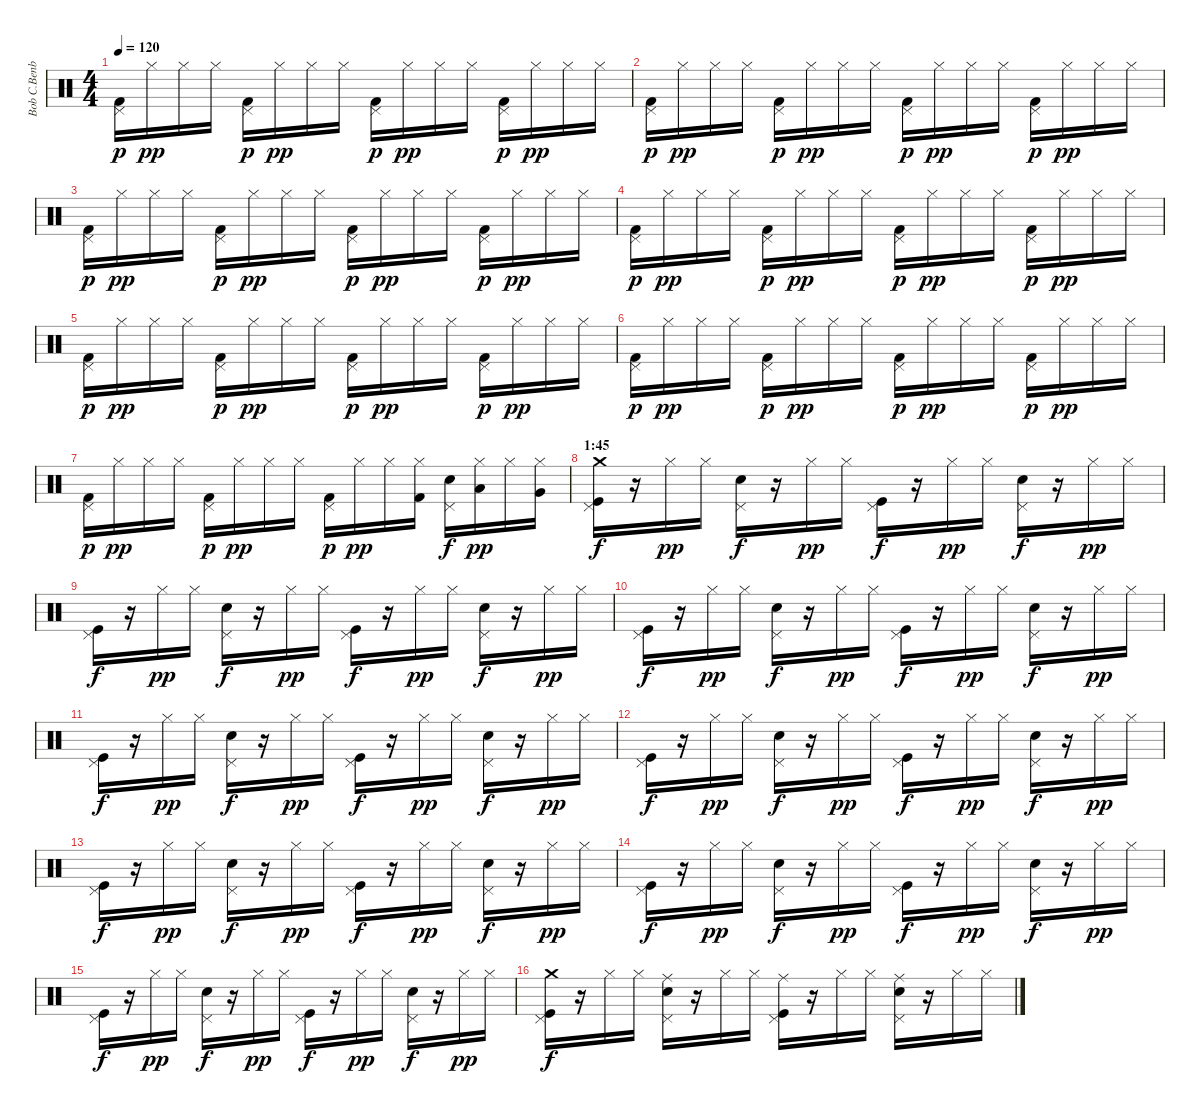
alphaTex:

\track ("Bob C.Benberg (drums)" "Bob C.Benb") {instrument percussion}
\staff {score}
\articulation defaults
\ts (4 4)
\tempo 120
\clef neutral
\ks c
("Pedal Hi-Hat (hit)" "Kick (hit) 2").16{dy p} "Hi-Hat (closed)".16{dy pp} "Hi-Hat (closed)".16 "Hi-Hat (closed)".16 ("Pedal Hi-Hat (hit)" "Kick (hit) 2").16{dy p} "Hi-Hat (closed)".16{dy pp} "Hi-Hat (closed)".16 "Hi-Hat (closed)".16 ("Pedal Hi-Hat (hit)" "Kick (hit) 2").16{dy p} "Hi-Hat (closed)".16{dy pp} "Hi-Hat (closed)".16 "Hi-Hat (closed)".16 ("Pedal Hi-Hat (hit)" "Kick (hit) 2").16{dy p} "Hi-Hat (closed)".16{dy pp} "Hi-Hat (closed)".16 "Hi-Hat (closed)".16 |
("Pedal Hi-Hat (hit)" "Kick (hit) 2").16{dy p} "Hi-Hat (closed)".16{dy pp} "Hi-Hat (closed)".16 "Hi-Hat (closed)".16 ("Pedal Hi-Hat (hit)" "Kick (hit) 2").16{dy p} "Hi-Hat (closed)".16{dy pp} "Hi-Hat (closed)".16 "Hi-Hat (closed)".16 ("Pedal Hi-Hat (hit)" "Kick (hit) 2").16{dy p} "Hi-Hat (closed)".16{dy pp} "Hi-Hat (closed)".16 "Hi-Hat (closed)".16 ("Pedal Hi-Hat (hit)" "Kick (hit) 2").16{dy p} "Hi-Hat (closed)".16{dy pp} "Hi-Hat (closed)".16 "Hi-Hat (closed)".16 |
("Pedal Hi-Hat (hit)" "Kick (hit) 2").16{dy p} "Hi-Hat (closed)".16{dy pp} "Hi-Hat (closed)".16 "Hi-Hat (closed)".16 ("Pedal Hi-Hat (hit)" "Kick (hit) 2").16{dy p} "Hi-Hat (closed)".16{dy pp} "Hi-Hat (closed)".16 "Hi-Hat (closed)".16 ("Pedal Hi-Hat (hit)" "Kick (hit) 2").16{dy p} "Hi-Hat (closed)".16{dy pp} "Hi-Hat (closed)".16 "Hi-Hat (closed)".16 ("Pedal Hi-Hat (hit)" "Kick (hit) 2").16{dy p} "Hi-Hat (closed)".16{dy pp} "Hi-Hat (closed)".16 "Hi-Hat (closed)".16 |
("Pedal Hi-Hat (hit)" "Kick (hit) 2").16{dy p} "Hi-Hat (closed)".16{dy pp} "Hi-Hat (closed)".16 "Hi-Hat (closed)".16 ("Pedal Hi-Hat (hit)" "Kick (hit) 2").16{dy p} "Hi-Hat (closed)".16{dy pp} "Hi-Hat (closed)".16 "Hi-Hat (closed)".16 ("Pedal Hi-Hat (hit)" "Kick (hit) 2").16{dy p} "Hi-Hat (closed)".16{dy pp} "Hi-Hat (closed)".16 "Hi-Hat (closed)".16 ("Pedal Hi-Hat (hit)" "Kick (hit) 2").16{dy p} "Hi-Hat (closed)".16{dy pp} "Hi-Hat (closed)".16 "Hi-Hat (closed)".16 |
("Pedal Hi-Hat (hit)" "Kick (hit) 2").16{dy p} "Hi-Hat (closed)".16{dy pp} "Hi-Hat (closed)".16 "Hi-Hat (closed)".16 ("Pedal Hi-Hat (hit)" "Kick (hit) 2").16{dy p} "Hi-Hat (closed)".16{dy pp} "Hi-Hat (closed)".16 "Hi-Hat (closed)".16 ("Pedal Hi-Hat (hit)" "Kick (hit) 2").16{dy p} "Hi-Hat (closed)".16{dy pp} "Hi-Hat (closed)".16 "Hi-Hat (closed)".16 ("Pedal Hi-Hat (hit)" "Kick (hit) 2").16{dy p} "Hi-Hat (closed)".16{dy pp} "Hi-Hat (closed)".16 "Hi-Hat (closed)".16 |
("Pedal Hi-Hat (hit)" "Kick (hit) 2").16{dy p} "Hi-Hat (closed)".16{dy pp} "Hi-Hat (closed)".16 "Hi-Hat (closed)".16 ("Pedal Hi-Hat (hit)" "Kick (hit) 2").16{dy p} "Hi-Hat (closed)".16{dy pp} "Hi-Hat (closed)".16 "Hi-Hat (closed)".16 ("Pedal Hi-Hat (hit)" "Kick (hit) 2").16{dy p} "Hi-Hat (closed)".16{dy pp} "Hi-Hat (closed)".16 "Hi-Hat (closed)".16 ("Pedal Hi-Hat (hit)" "Kick (hit) 2").16{dy p} "Hi-Hat (closed)".16{dy pp} "Hi-Hat (closed)".16 "Hi-Hat (closed)".16 |
("Pedal Hi-Hat (hit)" "Kick (hit) 2").16{dy p} "Hi-Hat (closed)".16{dy pp} "Hi-Hat (closed)".16 "Hi-Hat (closed)".16 ("Pedal Hi-Hat (hit)" "Kick (hit) 2").16{dy p} "Hi-Hat (closed)".16{dy pp} "Hi-Hat (closed)".16 "Hi-Hat (closed)".16 ("Pedal Hi-Hat (hit)" "Kick (hit) 2").16{dy p} "Hi-Hat (closed)".16{dy pp} "Hi-Hat (closed)".16 ("Hi-Hat (closed)" "Kick (hit) 2").16 ("Pedal Hi-Hat (hit)" "Snare (hit) 2").16{dy f} ("Hi-Hat (closed)" "Low Tom (hit)").16{dy pp} "Hi-Hat (closed)".16 ("Hi-Hat (closed)" "Very Low Tom (hit)").16 |
\section ("" "1:45")
("Pedal Hi-Hat (hit)" "Kick (hit)" "Crash medium (hit)").16{dy f} r.16 "Hi-Hat (closed)".16{dy pp} "Hi-Hat (closed)".16 ("Pedal Hi-Hat (hit)" "Snare (hit) 2").16{dy f} r.16 "Hi-Hat (closed)".16{dy pp} "Hi-Hat (closed)".16 ("Pedal Hi-Hat (hit)" "Kick (hit)").16{dy f} r.16 "Hi-Hat (closed)".16{dy pp} "Hi-Hat (closed)".16 ("Pedal Hi-Hat (hit)" "Snare (hit) 2").16{dy f} r.16 "Hi-Hat (closed)".16{dy pp} "Hi-Hat (closed)".16 |
("Pedal Hi-Hat (hit)" "Kick (hit)").16{dy f} r.16 "Hi-Hat (closed)".16{dy pp} "Hi-Hat (closed)".16 ("Pedal Hi-Hat (hit)" "Snare (hit) 2").16{dy f} r.16 "Hi-Hat (closed)".16{dy pp} "Hi-Hat (closed)".16 ("Pedal Hi-Hat (hit)" "Kick (hit)").16{dy f} r.16 "Hi-Hat (closed)".16{dy pp} "Hi-Hat (closed)".16 ("Pedal Hi-Hat (hit)" "Snare (hit) 2").16{dy f} r.16 "Hi-Hat (closed)".16{dy pp} "Hi-Hat (closed)".16 |
("Pedal Hi-Hat (hit)" "Kick (hit)").16{dy f} r.16 "Hi-Hat (closed)".16{dy pp} "Hi-Hat (closed)".16 ("Pedal Hi-Hat (hit)" "Snare (hit) 2").16{dy f} r.16 "Hi-Hat (closed)".16{dy pp} "Hi-Hat (closed)".16 ("Pedal Hi-Hat (hit)" "Kick (hit)").16{dy f} r.16 "Hi-Hat (closed)".16{dy pp} "Hi-Hat (closed)".16 ("Pedal Hi-Hat (hit)" "Snare (hit) 2").16{dy f} r.16 "Hi-Hat (closed)".16{dy pp} "Hi-Hat (closed)".16 |
("Pedal Hi-Hat (hit)" "Kick (hit)").16{dy f} r.16 "Hi-Hat (closed)".16{dy pp} "Hi-Hat (closed)".16 ("Pedal Hi-Hat (hit)" "Snare (hit) 2").16{dy f} r.16 "Hi-Hat (closed)".16{dy pp} "Hi-Hat (closed)".16 ("Pedal Hi-Hat (hit)" "Kick (hit)").16{dy f} r.16 "Hi-Hat (closed)".16{dy pp} "Hi-Hat (closed)".16 ("Pedal Hi-Hat (hit)" "Snare (hit) 2").16{dy f} r.16 "Hi-Hat (closed)".16{dy pp} "Hi-Hat (closed)".16 |
("Pedal Hi-Hat (hit)" "Kick (hit)").16{dy f} r.16 "Hi-Hat (closed)".16{dy pp} "Hi-Hat (closed)".16 ("Pedal Hi-Hat (hit)" "Snare (hit) 2").16{dy f} r.16 "Hi-Hat (closed)".16{dy pp} "Hi-Hat (closed)".16 ("Pedal Hi-Hat (hit)" "Kick (hit)").16{dy f} r.16 "Hi-Hat (closed)".16{dy pp} "Hi-Hat (closed)".16 ("Pedal Hi-Hat (hit)" "Snare (hit) 2").16{dy f} r.16 "Hi-Hat (closed)".16{dy pp} "Hi-Hat (closed)".16 |
("Pedal Hi-Hat (hit)" "Kick (hit)").16{dy f} r.16 "Hi-Hat (closed)".16{dy pp} "Hi-Hat (closed)".16 ("Pedal Hi-Hat (hit)" "Snare (hit) 2").16{dy f} r.16 "Hi-Hat (closed)".16{dy pp} "Hi-Hat (closed)".16 ("Pedal Hi-Hat (hit)" "Kick (hit)").16{dy f} r.16 "Hi-Hat (closed)".16{dy pp} "Hi-Hat (closed)".16 ("Pedal Hi-Hat (hit)" "Snare (hit) 2").16{dy f} r.16 "Hi-Hat (closed)".16{dy pp} "Hi-Hat (closed)".16 |
("Pedal Hi-Hat (hit)" "Kick (hit)").16{dy f} r.16 "Hi-Hat (closed)".16{dy pp} "Hi-Hat (closed)".16 ("Pedal Hi-Hat (hit)" "Snare (hit) 2").16{dy f} r.16 "Hi-Hat (closed)".16{dy pp} "Hi-Hat (closed)".16 ("Pedal Hi-Hat (hit)" "Kick (hit)").16{dy f} r.16 "Hi-Hat (closed)".16{dy pp} "Hi-Hat (closed)".16 ("Pedal Hi-Hat (hit)" "Snare (hit) 2").16{dy f} r.16 "Hi-Hat (closed)".16{dy pp} "Hi-Hat (closed)".16 |
("Pedal Hi-Hat (hit)" "Kick (hit)").16{dy f} r.16 "Hi-Hat (closed)".16{dy pp} "Hi-Hat (closed)".16 ("Pedal Hi-Hat (hit)" "Snare (hit) 2").16{dy f} r.16 "Hi-Hat (closed)".16{dy pp} "Hi-Hat (closed)".16 ("Pedal Hi-Hat (hit)" "Kick (hit)").16{dy f} r.16 "Hi-Hat (closed)".16{dy pp} "Hi-Hat (closed)".16 ("Pedal Hi-Hat (hit)" "Snare (hit) 2").16{dy f} r.16 "Hi-Hat (closed)".16{dy pp} "Hi-Hat (closed)".16 |
("Pedal Hi-Hat (hit)" "Kick (hit)" "Crash medium (hit)").16{dy f} r.16 "Hi-Hat (closed)".16 "Hi-Hat (closed)".16 ("Pedal Hi-Hat (hit)" "Snare (hit) 2" "Ride (middle)").16 r.16 "Hi-Hat (closed)".16 "Hi-Hat (closed)".16 ("Pedal Hi-Hat (hit)" "Kick (hit)" "Ride (middle)").16 r.16 "Hi-Hat (closed)".16 "Hi-Hat (closed)".16 ("Pedal Hi-Hat (hit)" "Snare (hit) 2" "Ride (middle)").16 r.16 "Hi-Hat (closed)".16 "Hi-Hat (closed)".16
